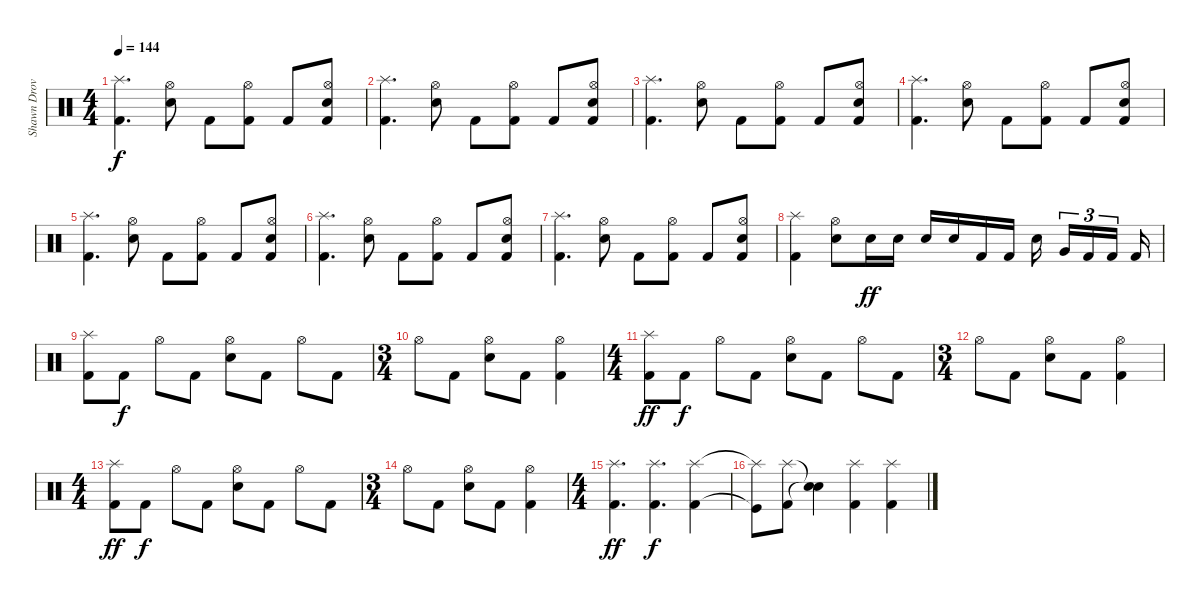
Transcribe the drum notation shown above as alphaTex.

\track ("Shawn Drover" "Shawn Drov") {instrument percussion}
\staff {score}
\articulation defaults
\ts (4 4)
\tempo 144
\clef neutral
\ks c
("Splash (hit)" "Kick (hit) 2").4{d dy f} ("Hi-Hat (open)" "Electric Snare (hit)").8 "Kick (hit) 2".8 ("Hi-Hat (open)" "Kick (hit) 2").8 "Kick (hit) 2".8 ("Hi-Hat (open)" "Electric Snare (hit)" "Kick (hit) 2").8 |
("Splash (hit)" "Kick (hit) 2").4{d} ("Hi-Hat (open)" "Electric Snare (hit)").8 "Kick (hit) 2".8 ("Hi-Hat (open)" "Kick (hit) 2").8 "Kick (hit) 2".8 ("Hi-Hat (open)" "Electric Snare (hit)" "Kick (hit) 2").8 |
("Splash (hit)" "Kick (hit) 2").4{d} ("Hi-Hat (open)" "Electric Snare (hit)").8 "Kick (hit) 2".8 ("Hi-Hat (open)" "Kick (hit) 2").8 "Kick (hit) 2".8 ("Hi-Hat (open)" "Electric Snare (hit)" "Kick (hit) 2").8 |
("Splash (hit)" "Kick (hit) 2").4{d} ("Hi-Hat (open)" "Electric Snare (hit)").8 "Kick (hit) 2".8 ("Hi-Hat (open)" "Kick (hit) 2").8 "Kick (hit) 2".8 ("Hi-Hat (open)" "Electric Snare (hit)" "Kick (hit) 2").8 |
("Splash (hit)" "Kick (hit) 2").4{d} ("Hi-Hat (open)" "Electric Snare (hit)").8 "Kick (hit) 2".8 ("Hi-Hat (open)" "Kick (hit) 2").8 "Kick (hit) 2".8 ("Hi-Hat (open)" "Electric Snare (hit)" "Kick (hit) 2").8 |
("Splash (hit)" "Kick (hit) 2").4{d} ("Hi-Hat (open)" "Electric Snare (hit)").8 "Kick (hit) 2".8 ("Hi-Hat (open)" "Kick (hit) 2").8 "Kick (hit) 2".8 ("Hi-Hat (open)" "Electric Snare (hit)" "Kick (hit) 2").8 |
("Splash (hit)" "Kick (hit) 2").4{d} ("Hi-Hat (open)" "Electric Snare (hit)").8 "Kick (hit) 2".8 ("Hi-Hat (open)" "Kick (hit) 2").8 "Kick (hit) 2".8 ("Hi-Hat (open)" "Electric Snare (hit)" "Kick (hit) 2").8 |
("Splash (hit)" "Kick (hit) 2").4 ("Hi-Hat (open)" "Electric Snare (hit)").8 "Electric Snare (hit)".16{dy ff} "Electric Snare (hit)".16 "Electric Snare (hit)".16 "Electric Snare (hit)".16 "Kick (hit) 2".16 "Kick (hit) 2".16 "Electric Snare (hit)".16{beam splitsecondary} "Very Low Tom (hit)".16{tu (3 2)} "Kick (hit) 2".16{tu (3 2)} "Kick (hit) 2".16{tu (3 2) beam splitsecondary} "Kick (hit) 2".16 |
("Splash (hit)" "Kick (hit) 2").8 "Kick (hit) 2".8{dy f} "Hi-Hat (open)".8 "Kick (hit) 2".8 ("Hi-Hat (open)" "Electric Snare (hit)").8 "Kick (hit) 2".8 "Hi-Hat (open)".8 "Kick (hit) 2".8 |
\ts (3 4)
"Hi-Hat (open)".8 "Kick (hit) 2".8 ("Hi-Hat (open)" "Electric Snare (hit)").8 "Kick (hit) 2".8 ("Hi-Hat (open)" "Kick (hit) 2").4 |
\ts (4 4)
("Splash (hit)" "Kick (hit) 2").8{dy ff} "Kick (hit) 2".8{dy f} "Hi-Hat (open)".8 "Kick (hit) 2".8 ("Hi-Hat (open)" "Electric Snare (hit)").8 "Kick (hit) 2".8 "Hi-Hat (open)".8 "Kick (hit) 2".8 |
\ts (3 4)
"Hi-Hat (open)".8 "Kick (hit) 2".8 ("Hi-Hat (open)" "Electric Snare (hit)").8 "Kick (hit) 2".8 ("Hi-Hat (open)" "Kick (hit) 2").4 |
\ts (4 4)
("Splash (hit)" "Kick (hit) 2").8{dy ff} "Kick (hit) 2".8{dy f} "Hi-Hat (open)".8 "Kick (hit) 2".8 ("Hi-Hat (open)" "Electric Snare (hit)").8 "Kick (hit) 2".8 "Hi-Hat (open)".8 "Kick (hit) 2".8 |
\ts (3 4)
"Hi-Hat (open)".8 "Kick (hit) 2".8 ("Hi-Hat (open)" "Electric Snare (hit)").8 "Kick (hit) 2".8 ("Hi-Hat (open)" "Kick (hit) 2").4 |
\ts (4 4)
("Splash (hit)" "Kick (hit) 2").4{d dy ff} ("Splash (hit)" "Kick (hit) 2").4{d dy f} ("Splash (hit)" "Kick (hit) 2").4 |
("Splash (hit)"{t} "Kick (hit)"{t}).8 ("Splash (hit)" "Kick (hit) 2").8 ("Snare (hit)"{t} "Snare (hit)"{t}).4 ("Splash (hit)" "Kick (hit) 2").4 ("Splash (hit)" "Kick (hit) 2").4
